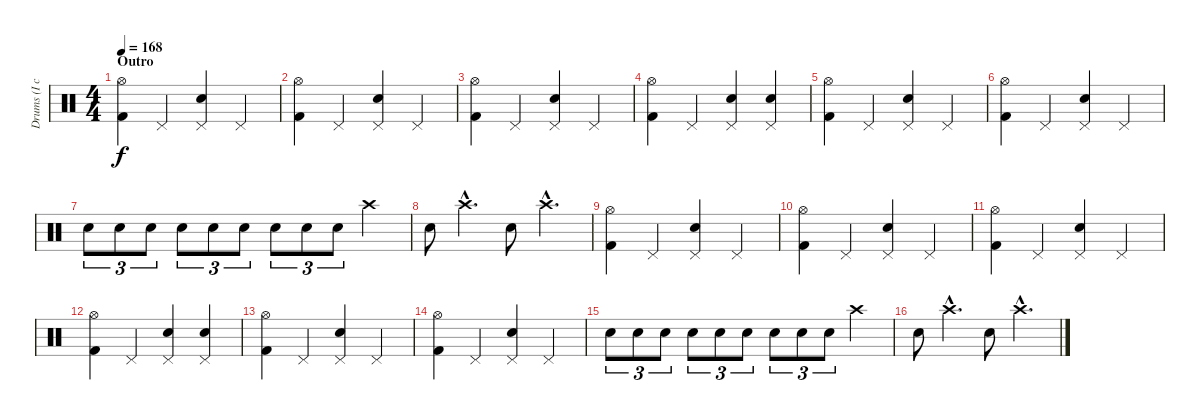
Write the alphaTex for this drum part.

\track ("Drums (I can't tab drums too well...)" "Drums (I c") {instrument percussion}
\staff {score}
\articulation defaults
\ts (4 4)
\section ("" "Outro")
\tempo 168
\clef neutral
\ks c
("Hi-Hat (open)" "Kick (hit) 2").4{dy f} "Pedal Hi-Hat (hit)".4 ("Pedal Hi-Hat (hit)" "Snare (hit) 2").4 "Pedal Hi-Hat (hit)".4 |
("Hi-Hat (open)" "Kick (hit) 2").4 "Pedal Hi-Hat (hit)".4 ("Pedal Hi-Hat (hit)" "Snare (hit) 2").4 "Pedal Hi-Hat (hit)".4 |
("Hi-Hat (open)" "Kick (hit) 2").4 "Pedal Hi-Hat (hit)".4 ("Pedal Hi-Hat (hit)" "Snare (hit) 2").4 "Pedal Hi-Hat (hit)".4 |
("Hi-Hat (open)" "Kick (hit) 2").4 "Pedal Hi-Hat (hit)".4 ("Pedal Hi-Hat (hit)" "Snare (hit) 2").4 ("Pedal Hi-Hat (hit)" "Snare (hit) 2").4 |
("Hi-Hat (open)" "Kick (hit) 2").4 "Pedal Hi-Hat (hit)".4 ("Pedal Hi-Hat (hit)" "Snare (hit) 2").4 "Pedal Hi-Hat (hit)".4 |
("Hi-Hat (open)" "Kick (hit) 2").4 "Pedal Hi-Hat (hit)".4 ("Pedal Hi-Hat (hit)" "Snare (hit) 2").4 "Pedal Hi-Hat (hit)".4 |
"Snare (hit) 2".8{tu (3 2)} "Electric Snare (hit)".8{tu (3 2)} "Snare (hit) 2".8{tu (3 2)} "Snare (hit) 2".8{tu (3 2)} "Electric Snare (hit)".8{tu (3 2)} "Snare (hit) 2".8{tu (3 2)} "Snare (hit) 2".8{tu (3 2)} "Electric Snare (hit)".8{tu (3 2)} "Snare (hit) 2".8{tu (3 2)} "Crash high (hit)".4 |
"Snare (hit) 2".8 "Crash high (hit)"{hac}.4{d} "Snare (hit) 2".8 "Crash high (hit)"{hac}.4{d} |
("Hi-Hat (open)" "Kick (hit) 2").4 "Pedal Hi-Hat (hit)".4 ("Pedal Hi-Hat (hit)" "Snare (hit) 2").4 "Pedal Hi-Hat (hit)".4 |
("Hi-Hat (open)" "Kick (hit) 2").4 "Pedal Hi-Hat (hit)".4 ("Pedal Hi-Hat (hit)" "Snare (hit) 2").4 "Pedal Hi-Hat (hit)".4 |
("Hi-Hat (open)" "Kick (hit) 2").4 "Pedal Hi-Hat (hit)".4 ("Pedal Hi-Hat (hit)" "Snare (hit) 2").4 "Pedal Hi-Hat (hit)".4 |
("Hi-Hat (open)" "Kick (hit) 2").4 "Pedal Hi-Hat (hit)".4 ("Pedal Hi-Hat (hit)" "Snare (hit) 2").4 ("Pedal Hi-Hat (hit)" "Snare (hit) 2").4 |
("Hi-Hat (open)" "Kick (hit) 2").4 "Pedal Hi-Hat (hit)".4 ("Pedal Hi-Hat (hit)" "Snare (hit) 2").4 "Pedal Hi-Hat (hit)".4 |
("Hi-Hat (open)" "Kick (hit) 2").4 "Pedal Hi-Hat (hit)".4 ("Pedal Hi-Hat (hit)" "Snare (hit) 2").4 "Pedal Hi-Hat (hit)".4 |
"Snare (hit) 2".8{tu (3 2)} "Electric Snare (hit)".8{tu (3 2)} "Snare (hit) 2".8{tu (3 2)} "Snare (hit) 2".8{tu (3 2)} "Electric Snare (hit)".8{tu (3 2)} "Snare (hit) 2".8{tu (3 2)} "Snare (hit) 2".8{tu (3 2)} "Electric Snare (hit)".8{tu (3 2)} "Snare (hit) 2".8{tu (3 2)} "Crash high (hit)".4 |
"Snare (hit) 2".8 "Crash high (hit)"{hac}.4{d} "Snare (hit) 2".8 "Crash high (hit)"{hac}.4{d}
